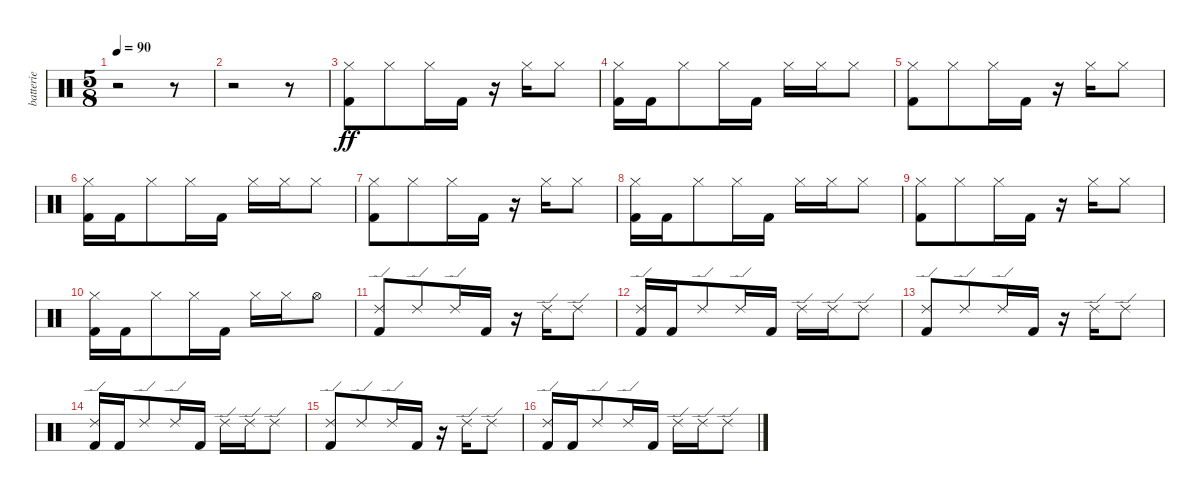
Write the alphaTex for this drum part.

\track ("batterie" "batterie") {instrument percussion}
\staff {score}
\articulation defaults
\ts (5 8)
\tempo 90
\clef neutral
\ks c
r.2{dy ff} r.8 |
r.2 r.8 |
("Kick (hit) 2" "Hi-Hat (closed)").8 "Hi-Hat (closed)".8 "Hi-Hat (closed)".16 "Kick (hit) 2".16 r.16 "Hi-Hat (closed)".16 "Hi-Hat (closed)".8 |
("Kick (hit) 2" "Hi-Hat (closed)").16 "Kick (hit) 2".16 "Hi-Hat (closed)".8 "Hi-Hat (closed)".16 "Kick (hit) 2".16 "Hi-Hat (closed)".16 "Hi-Hat (closed)".16 "Hi-Hat (closed)".8 |
("Kick (hit) 2" "Hi-Hat (closed)").8 "Hi-Hat (closed)".8 "Hi-Hat (closed)".16 "Kick (hit) 2".16 r.16 "Hi-Hat (closed)".16 "Hi-Hat (closed)".8 |
("Kick (hit) 2" "Hi-Hat (closed)").16 "Kick (hit) 2".16 "Hi-Hat (closed)".8 "Hi-Hat (closed)".16 "Kick (hit) 2".16 "Hi-Hat (closed)".16 "Hi-Hat (closed)".16 "Hi-Hat (closed)".8 |
("Kick (hit) 2" "Hi-Hat (closed)").8 "Hi-Hat (closed)".8 "Hi-Hat (closed)".16 "Kick (hit) 2".16 r.16 "Hi-Hat (closed)".16 "Hi-Hat (closed)".8 |
("Kick (hit) 2" "Hi-Hat (closed)").16 "Kick (hit) 2".16 "Hi-Hat (closed)".8 "Hi-Hat (closed)".16 "Kick (hit) 2".16 "Hi-Hat (closed)".16 "Hi-Hat (closed)".16 "Hi-Hat (closed)".8 |
("Kick (hit) 2" "Hi-Hat (closed)").8 "Hi-Hat (closed)".8 "Hi-Hat (closed)".16 "Kick (hit) 2".16 r.16 "Hi-Hat (closed)".16 "Hi-Hat (closed)".8 |
("Kick (hit) 2" "Hi-Hat (closed)").16 "Kick (hit) 2".16 "Hi-Hat (closed)".8 "Hi-Hat (closed)".16 "Kick (hit) 2".16 "Hi-Hat (closed)".16 "Hi-Hat (closed)".16 "Hi-Hat (open)".8 |
("Kick (hit) 2" "Ride (edge) 2").8 "Ride (edge) 2".8 "Ride (edge) 2".16 "Kick (hit) 2".16 r.16 "Ride (edge) 2".16 "Ride (edge) 2".8 |
("Kick (hit) 2" "Ride (edge) 2").16 "Kick (hit) 2".16 "Ride (edge) 2".8 "Ride (edge) 2".16 "Kick (hit) 2".16 "Ride (edge) 2".16 "Ride (edge) 2".16 "Ride (edge) 2".8 |
("Kick (hit) 2" "Ride (edge) 2").8 "Ride (edge) 2".8 "Ride (edge) 2".16 "Kick (hit) 2".16 r.16 "Ride (edge) 2".16 "Ride (edge) 2".8 |
("Kick (hit) 2" "Ride (edge) 2").16 "Kick (hit) 2".16 "Ride (edge) 2".8 "Ride (edge) 2".16 "Kick (hit) 2".16 "Ride (edge) 2".16 "Ride (edge) 2".16 "Ride (edge) 2".8 |
("Kick (hit) 2" "Ride (edge) 2").8 "Ride (edge) 2".8 "Ride (edge) 2".16 "Kick (hit) 2".16 r.16 "Ride (edge) 2".16 "Ride (edge) 2".8 |
("Kick (hit) 2" "Ride (edge) 2").16 "Kick (hit) 2".16 "Ride (edge) 2".8 "Ride (edge) 2".16 "Kick (hit) 2".16 "Ride (edge) 2".16 "Ride (edge) 2".16 "Ride (edge) 2".8
